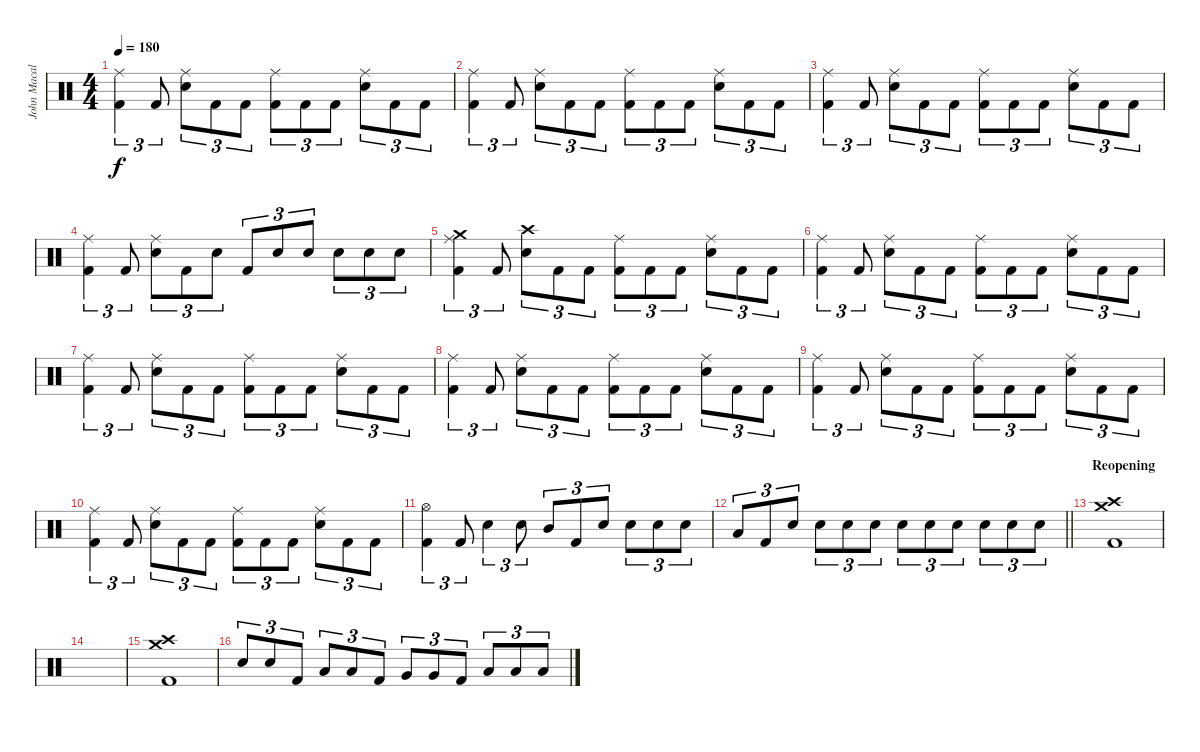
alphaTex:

\track ("John Macaluso" "John Macal") {instrument percussion}
\staff {score}
\articulation defaults
\ts (4 4)
\tempo 180
\clef neutral
\ks c
("Ride (middle)" "Kick (hit) 2").4{tu (3 2) dy f} "Kick (hit) 2".8{tu (3 2)} ("Ride (middle)" "Snare (hit) 2").8{tu (3 2)} "Kick (hit) 2".8{tu (3 2)} "Kick (hit) 2".8{tu (3 2)} ("Ride (middle)" "Kick (hit) 2").8{tu (3 2)} "Kick (hit) 2".8{tu (3 2)} "Kick (hit) 2".8{tu (3 2)} ("Ride (middle)" "Snare (hit) 2").8{tu (3 2)} "Kick (hit) 2".8{tu (3 2)} "Kick (hit) 2".8{tu (3 2)} |
("Ride (middle)" "Kick (hit) 2").4{tu (3 2)} "Kick (hit) 2".8{tu (3 2)} ("Ride (middle)" "Snare (hit) 2").8{tu (3 2)} "Kick (hit) 2".8{tu (3 2)} "Kick (hit) 2".8{tu (3 2)} ("Ride (middle)" "Kick (hit) 2").8{tu (3 2)} "Kick (hit) 2".8{tu (3 2)} "Kick (hit) 2".8{tu (3 2)} ("Ride (middle)" "Snare (hit) 2").8{tu (3 2)} "Kick (hit) 2".8{tu (3 2)} "Kick (hit) 2".8{tu (3 2)} |
("Ride (middle)" "Kick (hit) 2").4{tu (3 2)} "Kick (hit) 2".8{tu (3 2)} ("Ride (middle)" "Snare (hit) 2").8{tu (3 2)} "Kick (hit) 2".8{tu (3 2)} "Kick (hit) 2".8{tu (3 2)} ("Ride (middle)" "Kick (hit) 2").8{tu (3 2)} "Kick (hit) 2".8{tu (3 2)} "Kick (hit) 2".8{tu (3 2)} ("Ride (middle)" "Snare (hit) 2").8{tu (3 2)} "Kick (hit) 2".8{tu (3 2)} "Kick (hit) 2".8{tu (3 2)} |
("Ride (middle)" "Kick (hit) 2").4{tu (3 2)} "Kick (hit) 2".8{tu (3 2)} ("Ride (middle)" "Snare (hit) 2").8{tu (3 2)} "Kick (hit) 2".8{tu (3 2)} "Snare (hit) 2".8{tu (3 2)} "Kick (hit) 2".8{tu (3 2)} "Snare (hit) 2".8{tu (3 2)} "Snare (hit) 2".8{tu (3 2)} "Snare (hit) 2".8{tu (3 2)} "Snare (hit) 2".8{tu (3 2)} "Snare (hit) 2".8{tu (3 2)} |
("Crash medium (hit)" "Ride (middle)" "Kick (hit) 2").4{tu (3 2)} "Kick (hit) 2".8{tu (3 2)} ("Crash high (hit)" "Snare (hit) 2").8{tu (3 2)} "Kick (hit) 2".8{tu (3 2)} "Kick (hit) 2".8{tu (3 2)} ("Ride (middle)" "Kick (hit) 2").8{tu (3 2)} "Kick (hit) 2".8{tu (3 2)} "Kick (hit) 2".8{tu (3 2)} ("Ride (middle)" "Snare (hit) 2").8{tu (3 2)} "Kick (hit) 2".8{tu (3 2)} "Kick (hit) 2".8{tu (3 2)} |
("Ride (middle)" "Kick (hit) 2").4{tu (3 2)} "Kick (hit) 2".8{tu (3 2)} ("Ride (middle)" "Snare (hit) 2").8{tu (3 2)} "Kick (hit) 2".8{tu (3 2)} "Kick (hit) 2".8{tu (3 2)} ("Ride (middle)" "Kick (hit) 2").8{tu (3 2)} "Kick (hit) 2".8{tu (3 2)} "Kick (hit) 2".8{tu (3 2)} ("Ride (middle)" "Snare (hit) 2").8{tu (3 2)} "Kick (hit) 2".8{tu (3 2)} "Kick (hit) 2".8{tu (3 2)} |
("Ride (middle)" "Kick (hit) 2").4{tu (3 2)} "Kick (hit) 2".8{tu (3 2)} ("Ride (middle)" "Snare (hit) 2").8{tu (3 2)} "Kick (hit) 2".8{tu (3 2)} "Kick (hit) 2".8{tu (3 2)} ("Ride (middle)" "Kick (hit) 2").8{tu (3 2)} "Kick (hit) 2".8{tu (3 2)} "Kick (hit) 2".8{tu (3 2)} ("Ride (middle)" "Snare (hit) 2").8{tu (3 2)} "Kick (hit) 2".8{tu (3 2)} "Kick (hit) 2".8{tu (3 2)} |
("Ride (middle)" "Kick (hit) 2").4{tu (3 2)} "Kick (hit) 2".8{tu (3 2)} ("Ride (middle)" "Snare (hit) 2").8{tu (3 2)} "Kick (hit) 2".8{tu (3 2)} "Kick (hit) 2".8{tu (3 2)} ("Ride (middle)" "Kick (hit) 2").8{tu (3 2)} "Kick (hit) 2".8{tu (3 2)} "Kick (hit) 2".8{tu (3 2)} ("Ride (middle)" "Snare (hit) 2").8{tu (3 2)} "Kick (hit) 2".8{tu (3 2)} "Kick (hit) 2".8{tu (3 2)} |
("Ride (middle)" "Kick (hit) 2").4{tu (3 2)} "Kick (hit) 2".8{tu (3 2)} ("Ride (middle)" "Snare (hit) 2").8{tu (3 2)} "Kick (hit) 2".8{tu (3 2)} "Kick (hit) 2".8{tu (3 2)} ("Ride (middle)" "Kick (hit) 2").8{tu (3 2)} "Kick (hit) 2".8{tu (3 2)} "Kick (hit) 2".8{tu (3 2)} ("Ride (middle)" "Snare (hit) 2").8{tu (3 2)} "Kick (hit) 2".8{tu (3 2)} "Kick (hit) 2".8{tu (3 2)} |
("Ride (middle)" "Kick (hit) 2").4{tu (3 2)} "Kick (hit) 2".8{tu (3 2)} ("Ride (middle)" "Snare (hit) 2").8{tu (3 2)} "Kick (hit) 2".8{tu (3 2)} "Kick (hit) 2".8{tu (3 2)} ("Ride (middle)" "Kick (hit) 2").8{tu (3 2)} "Kick (hit) 2".8{tu (3 2)} "Kick (hit) 2".8{tu (3 2)} ("Ride (middle)" "Snare (hit) 2").8{tu (3 2)} "Kick (hit) 2".8{tu (3 2)} "Kick (hit) 2".8{tu (3 2)} |
("Hi-Hat (open)" "Kick (hit) 2").4{tu (3 2)} "Kick (hit) 2".8{tu (3 2)} "Snare (hit) 2".4{tu (3 2)} "Snare (hit) 2".8{tu (3 2)} "Mid Tom (hit)".8{tu (3 2)} "Kick (hit) 2".8{tu (3 2)} "Snare (hit) 2".8{tu (3 2)} "Snare (hit) 2".8{tu (3 2)} "Snare (hit) 2".8{tu (3 2)} "Snare (hit) 2".8{tu (3 2)} |
\barLineRight lightlight "Low Tom (hit)".8{tu (3 2)} "Kick (hit) 2".8{tu (3 2)} "Snare (hit) 2".8{tu (3 2)} "Snare (hit) 2".8{tu (3 2)} "Snare (hit) 2".8{tu (3 2)} "Snare (hit) 2".8{tu (3 2)} "Snare (hit) 2".8{tu (3 2)} "Snare (hit) 2".8{tu (3 2)} "Snare (hit) 2".8{tu (3 2)} "Snare (hit) 2".8{tu (3 2)} "Snare (hit) 2".8{tu (3 2)} "Snare (hit) 2".8{tu (3 2)}
|
\section ("" "Reopening")
("Crash high (hit)" "Crash medium (hit)" "Kick (hit) 2").1 |
|
("Crash high (hit)" "Crash medium (hit)" "Kick (hit) 2").1 |
"Snare (hit) 2".8{tu (3 2)} "Snare (hit) 2".8{tu (3 2)} "Kick (hit) 2".8{tu (3 2)} "Low Tom (hit)".8{tu (3 2)} "Low Tom (hit)".8{tu (3 2)} "Kick (hit) 2".8{tu (3 2)} "Very Low Tom (hit)".8{tu (3 2)} "Very Low Tom (hit)".8{tu (3 2)} "Kick (hit) 2".8{tu (3 2)} "Low Floor Tom (hit)".8{tu (3 2)} "Low Floor Tom (hit)".8{tu (3 2)} "Low Floor Tom (hit)".8{tu (3 2)}
